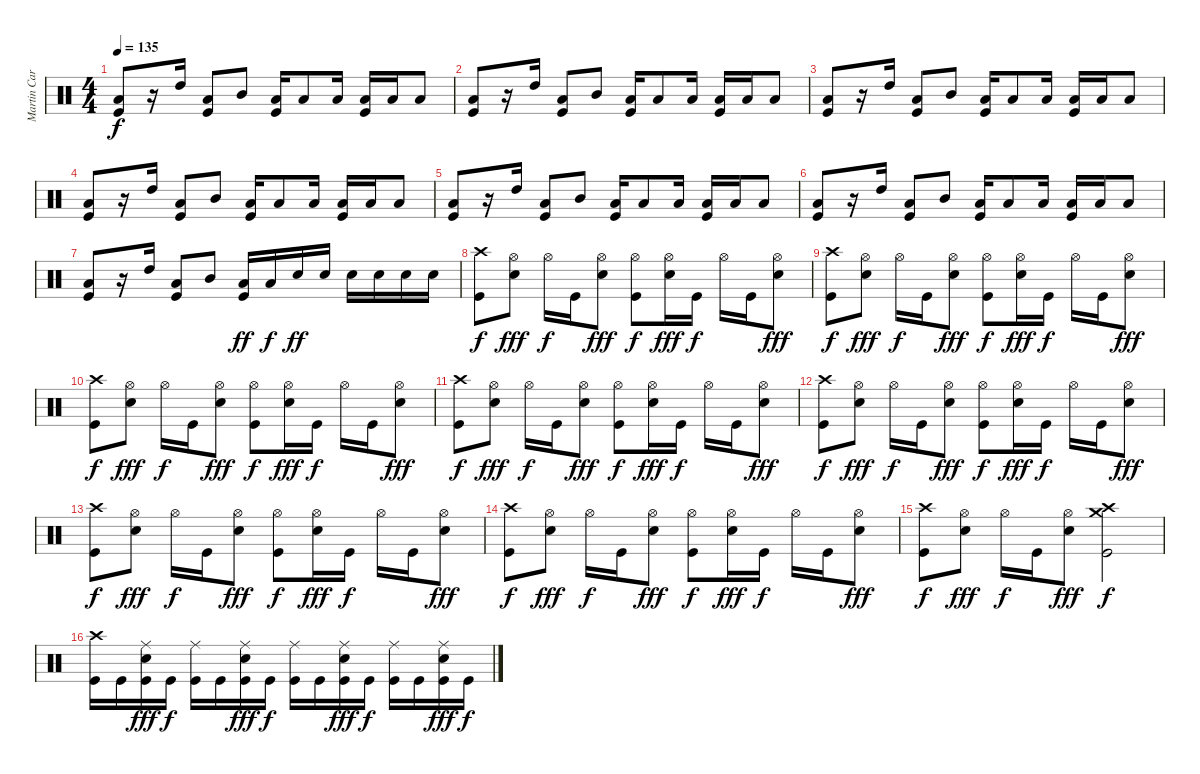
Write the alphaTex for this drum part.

\track ("Martin Carrizo" "Martin Car") {instrument percussion}
\staff {score}
\articulation defaults
\ts (4 4)
\tempo 135
\clef neutral
\ks c
("Kick (hit)" "Low Floor Tom (hit)").8{dy f} r.16 "High Tom (hit)".16 ("Kick (hit)" "Low Floor Tom (hit)").8 "Mid Tom (hit)".8 ("Kick (hit)" "Low Floor Tom (hit)").16 "Low Tom (hit)".8 "Low Tom (hit)".16 ("Kick (hit)" "Low Floor Tom (hit)").16 "Low Floor Tom (hit)".16 "Low Floor Tom (hit)".8 |
("Kick (hit)" "Low Floor Tom (hit)").8 r.16 "High Tom (hit)".16 ("Kick (hit)" "Low Floor Tom (hit)").8 "Mid Tom (hit)".8 ("Kick (hit)" "Low Floor Tom (hit)").16 "Low Tom (hit)".8 "Low Tom (hit)".16 ("Kick (hit)" "Low Floor Tom (hit)").16 "Low Floor Tom (hit)".16 "Low Floor Tom (hit)".8 |
("Kick (hit)" "Low Floor Tom (hit)").8 r.16 "High Tom (hit)".16 ("Kick (hit)" "Low Floor Tom (hit)").8 "Mid Tom (hit)".8 ("Kick (hit)" "Low Floor Tom (hit)").16 "Low Tom (hit)".8 "Low Tom (hit)".16 ("Kick (hit)" "Low Floor Tom (hit)").16 "Low Floor Tom (hit)".16 "Low Floor Tom (hit)".8 |
("Kick (hit)" "Low Floor Tom (hit)").8 r.16 "High Tom (hit)".16 ("Kick (hit)" "Low Floor Tom (hit)").8 "Mid Tom (hit)".8 ("Kick (hit)" "Low Floor Tom (hit)").16 "Low Tom (hit)".8 "Low Tom (hit)".16 ("Kick (hit)" "Low Floor Tom (hit)").16 "Low Floor Tom (hit)".16 "Low Floor Tom (hit)".8 |
("Kick (hit)" "Low Floor Tom (hit)").8 r.16 "High Tom (hit)".16 ("Kick (hit)" "Low Floor Tom (hit)").8 "Mid Tom (hit)".8 ("Kick (hit)" "Low Floor Tom (hit)").16 "Low Tom (hit)".8 "Low Tom (hit)".16 ("Kick (hit)" "Low Floor Tom (hit)").16 "Low Floor Tom (hit)".16 "Low Floor Tom (hit)".8 |
("Kick (hit)" "Low Floor Tom (hit)").8 r.16 "High Tom (hit)".16 ("Kick (hit)" "Low Floor Tom (hit)").8 "Mid Tom (hit)".8 ("Kick (hit)" "Low Floor Tom (hit)").16 "Low Tom (hit)".8 "Low Tom (hit)".16 ("Kick (hit)" "Low Floor Tom (hit)").16 "Low Floor Tom (hit)".16 "Low Floor Tom (hit)".8 |
("Kick (hit)" "Low Floor Tom (hit)").8 r.16 "High Tom (hit)".16 ("Kick (hit)" "Low Floor Tom (hit)").8 "Mid Tom (hit)".8 ("Kick (hit)" "Low Floor Tom (hit)").16{dy ff} "Low Tom (hit)".16{dy f} "Snare (hit) 2".16{dy ff} "Snare (hit) 2".16 "Snare (hit) 2".16 "Snare (hit) 2".16 "Snare (hit) 2".16 "Snare (hit) 2".16 |
("Kick (hit)" "Crash high (hit)").8{dy f} ("Snare (hit) 2" "Hi-Hat (open)").8{dy fff} "Hi-Hat (open)".16{dy f} "Kick (hit)".16 ("Snare (hit) 2" "Hi-Hat (open)").8{dy fff} ("Kick (hit)" "Hi-Hat (open)").8{dy f} ("Snare (hit) 2" "Hi-Hat (open)").16{dy fff} "Kick (hit)".16{dy f} "Hi-Hat (open)".16 "Kick (hit)".16 ("Snare (hit) 2" "Hi-Hat (open)").8{dy fff} |
("Kick (hit)" "Crash high (hit)").8{dy f} ("Snare (hit) 2" "Hi-Hat (open)").8{dy fff} "Hi-Hat (open)".16{dy f} "Kick (hit)".16 ("Snare (hit) 2" "Hi-Hat (open)").8{dy fff} ("Kick (hit)" "Hi-Hat (open)").8{dy f} ("Snare (hit) 2" "Hi-Hat (open)").16{dy fff} "Kick (hit)".16{dy f} "Hi-Hat (open)".16 "Kick (hit)".16 ("Snare (hit) 2" "Hi-Hat (open)").8{dy fff} |
("Kick (hit)" "Crash high (hit)").8{dy f} ("Snare (hit) 2" "Hi-Hat (open)").8{dy fff} "Hi-Hat (open)".16{dy f} "Kick (hit)".16 ("Snare (hit) 2" "Hi-Hat (open)").8{dy fff} ("Kick (hit)" "Hi-Hat (open)").8{dy f} ("Snare (hit) 2" "Hi-Hat (open)").16{dy fff} "Kick (hit)".16{dy f} "Hi-Hat (open)".16 "Kick (hit)".16 ("Snare (hit) 2" "Hi-Hat (open)").8{dy fff} |
("Kick (hit)" "Crash high (hit)").8{dy f} ("Snare (hit) 2" "Hi-Hat (open)").8{dy fff} "Hi-Hat (open)".16{dy f} "Kick (hit)".16 ("Snare (hit) 2" "Hi-Hat (open)").8{dy fff} ("Kick (hit)" "Hi-Hat (open)").8{dy f} ("Snare (hit) 2" "Hi-Hat (open)").16{dy fff} "Kick (hit)".16{dy f} "Hi-Hat (open)".16 "Kick (hit)".16 ("Snare (hit) 2" "Hi-Hat (open)").8{dy fff} |
("Kick (hit)" "Crash high (hit)").8{dy f} ("Snare (hit) 2" "Hi-Hat (open)").8{dy fff} "Hi-Hat (open)".16{dy f} "Kick (hit)".16 ("Snare (hit) 2" "Hi-Hat (open)").8{dy fff} ("Kick (hit)" "Hi-Hat (open)").8{dy f} ("Snare (hit) 2" "Hi-Hat (open)").16{dy fff} "Kick (hit)".16{dy f} "Hi-Hat (open)".16 "Kick (hit)".16 ("Snare (hit) 2" "Hi-Hat (open)").8{dy fff} |
("Kick (hit)" "Crash high (hit)").8{dy f} ("Snare (hit) 2" "Hi-Hat (open)").8{dy fff} "Hi-Hat (open)".16{dy f} "Kick (hit)".16 ("Snare (hit) 2" "Hi-Hat (open)").8{dy fff} ("Kick (hit)" "Hi-Hat (open)").8{dy f} ("Snare (hit) 2" "Hi-Hat (open)").16{dy fff} "Kick (hit)".16{dy f} "Hi-Hat (open)".16 "Kick (hit)".16 ("Snare (hit) 2" "Hi-Hat (open)").8{dy fff} |
("Kick (hit)" "Crash high (hit)").8{dy f} ("Snare (hit) 2" "Hi-Hat (open)").8{dy fff} "Hi-Hat (open)".16{dy f} "Kick (hit)".16 ("Snare (hit) 2" "Hi-Hat (open)").8{dy fff} ("Kick (hit)" "Hi-Hat (open)").8{dy f} ("Snare (hit) 2" "Hi-Hat (open)").16{dy fff} "Kick (hit)".16{dy f} "Hi-Hat (open)".16 "Kick (hit)".16 ("Snare (hit) 2" "Hi-Hat (open)").8{dy fff} |
("Kick (hit)" "Crash high (hit)").8{dy f} ("Snare (hit) 2" "Hi-Hat (open)").8{dy fff} "Hi-Hat (open)".16{dy f} "Kick (hit)".16 ("Snare (hit) 2" "Hi-Hat (open)").8{dy fff} ("Kick (hit)" "Crash medium (hit)" "Crash high (hit)").2{dy f} |
("Kick (hit)" "Crash high (hit)").16 "Kick (hit)".16 ("Kick (hit)" "Snare (hit) 2" "Ride (middle)").16{dy fff} "Kick (hit)".16{dy f} ("Kick (hit)" "Ride (middle)").16 "Kick (hit)".16 ("Kick (hit)" "Snare (hit) 2" "Ride (middle)").16{dy fff} "Kick (hit)".16{dy f} ("Kick (hit)" "Ride (middle)").16 "Kick (hit)".16 ("Kick (hit)" "Snare (hit) 2" "Ride (middle)").16{dy fff} "Kick (hit)".16{dy f} ("Kick (hit)" "Ride (middle)").16 "Kick (hit)".16 ("Kick (hit)" "Snare (hit) 2" "Ride (middle)").16{dy fff} "Kick (hit)".16{dy f}
